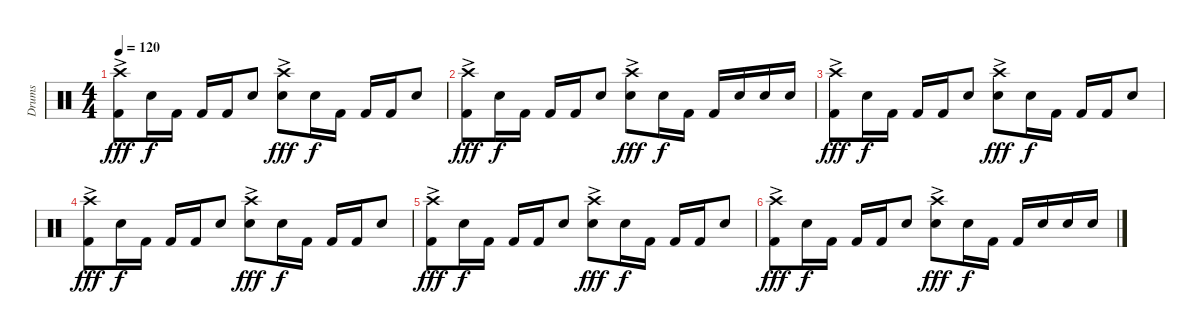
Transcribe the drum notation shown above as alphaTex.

\track ("Drums" "Drums") {instrument percussion}
\staff {score}
\articulation defaults
\ts (4 4)
\tempo 120
\clef neutral
\ks c
("Crash high (hit)"{ac} "Kick (hit) 2").8{dy fff} "Snare (hit) 2".16{dy f} "Kick (hit) 2".16 "Kick (hit) 2".16 "Kick (hit) 2".16 "Snare (hit) 2".8 ("Crash high (hit)"{ac} "Snare (hit) 2").8{dy fff} "Snare (hit) 2".16{dy f} "Kick (hit) 2".16 "Kick (hit) 2".16 "Kick (hit) 2".16 "Snare (hit) 2".8 |
("Crash high (hit)"{ac} "Kick (hit) 2").8{dy fff} "Snare (hit) 2".16{dy f} "Kick (hit) 2".16 "Kick (hit) 2".16 "Kick (hit) 2".16 "Snare (hit) 2".8 ("Crash high (hit)"{ac} "Snare (hit) 2").8{dy fff} "Snare (hit) 2".16{dy f} "Kick (hit) 2".16 "Kick (hit) 2".16 "Snare (hit) 2".16 "Snare (hit) 2".16 "Snare (hit) 2".16 |
("Crash high (hit)"{ac} "Kick (hit) 2").8{dy fff} "Snare (hit) 2".16{dy f} "Kick (hit) 2".16 "Kick (hit) 2".16 "Kick (hit) 2".16 "Snare (hit) 2".8 ("Crash high (hit)"{ac} "Snare (hit) 2").8{dy fff} "Snare (hit) 2".16{dy f} "Kick (hit) 2".16 "Kick (hit) 2".16 "Kick (hit) 2".16 "Snare (hit) 2".8 |
("Crash high (hit)"{ac} "Kick (hit) 2").8{dy fff} "Snare (hit) 2".16{dy f} "Kick (hit) 2".16 "Kick (hit) 2".16 "Kick (hit) 2".16 "Snare (hit) 2".8 ("Crash high (hit)"{ac} "Snare (hit) 2").8{dy fff} "Snare (hit) 2".16{dy f} "Kick (hit) 2".16 "Kick (hit) 2".16 "Kick (hit) 2".16 "Snare (hit) 2".8 |
("Crash high (hit)"{ac} "Kick (hit) 2").8{dy fff} "Snare (hit) 2".16{dy f} "Kick (hit) 2".16 "Kick (hit) 2".16 "Kick (hit) 2".16 "Snare (hit) 2".8 ("Crash high (hit)"{ac} "Snare (hit) 2").8{dy fff} "Snare (hit) 2".16{dy f} "Kick (hit) 2".16 "Kick (hit) 2".16 "Kick (hit) 2".16 "Snare (hit) 2".8 |
("Crash high (hit)"{ac} "Kick (hit) 2").8{dy fff} "Snare (hit) 2".16{dy f} "Kick (hit) 2".16 "Kick (hit) 2".16 "Kick (hit) 2".16 "Snare (hit) 2".8 ("Crash high (hit)"{ac} "Snare (hit) 2").8{dy fff} "Snare (hit) 2".16{dy f} "Kick (hit) 2".16 "Kick (hit) 2".16 "Snare (hit) 2".16 "Snare (hit) 2".16 "Snare (hit) 2".16
